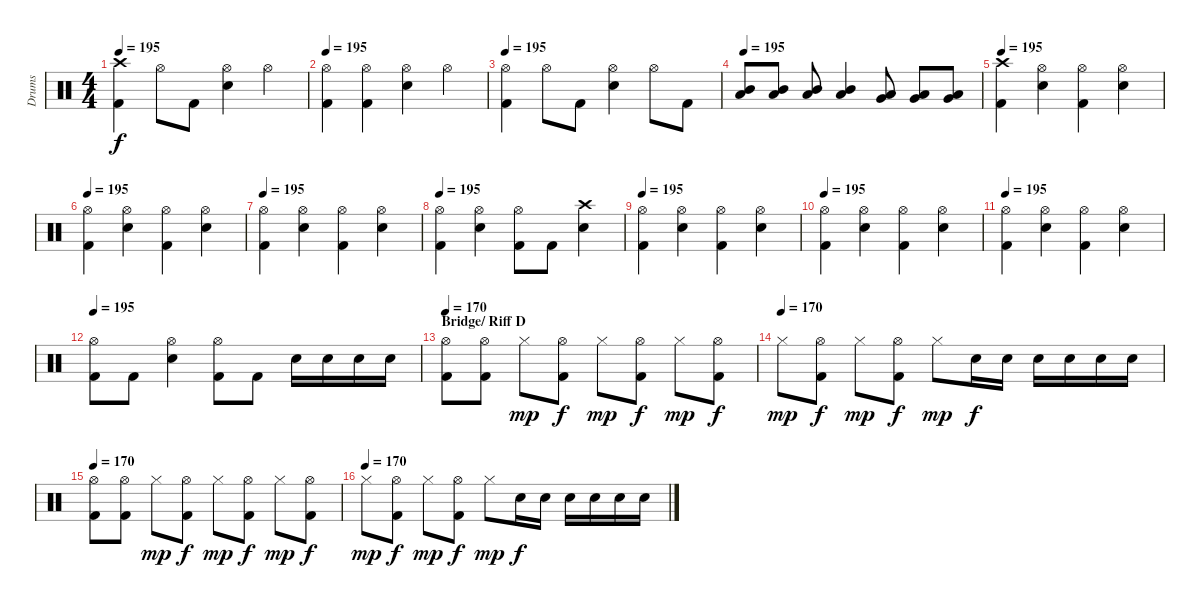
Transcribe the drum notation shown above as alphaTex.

\track ("Drums" "Drums") {instrument percussion}
\staff {score}
\articulation defaults
\ts (4 4)
\tempo 195
\clef neutral
\ks c
("Crash high (hit)" "Kick (hit) 2").4{dy f} "Hi-Hat (open)".8 "Kick (hit) 2".8 ("Hi-Hat (open)" "Electric Snare (hit)").4 "Hi-Hat (open)".4 |
\tempo 195
("Hi-Hat (open)" "Kick (hit) 2").4 ("Hi-Hat (open)" "Kick (hit) 2").4 ("Hi-Hat (open)" "Electric Snare (hit)").4 "Hi-Hat (open)".4 |
\tempo 195
("Hi-Hat (open)" "Kick (hit) 2").4 "Hi-Hat (open)".8 "Kick (hit) 2".8 ("Hi-Hat (open)" "Electric Snare (hit)").4 "Hi-Hat (open)".8 "Kick (hit) 2".8 |
\tempo 195
("Mid Tom (hit)" "Low Tom (hit)").8 ("Mid Tom (hit)" "Low Tom (hit)").8 ("Mid Tom (hit)" "Low Tom (hit)").8 ("Mid Tom (hit)" "Low Tom (hit)").4 ("Low Tom (hit)" "Very Low Tom (hit)").8 ("Low Tom (hit)" "Very Low Tom (hit)").8 ("Low Tom (hit)" "Very Low Tom (hit)").8 |
\tempo 195
("Crash high (hit)" "Kick (hit) 2").4 ("Hi-Hat (open)" "Electric Snare (hit)").4 ("Hi-Hat (open)" "Kick (hit) 2").4 ("Hi-Hat (open)" "Electric Snare (hit)").4 |
\tempo 195
("Hi-Hat (open)" "Kick (hit) 2").4 ("Hi-Hat (open)" "Electric Snare (hit)").4 ("Hi-Hat (open)" "Kick (hit) 2").4 ("Hi-Hat (open)" "Electric Snare (hit)").4 |
\tempo 195
("Hi-Hat (open)" "Kick (hit) 2").4 ("Hi-Hat (open)" "Electric Snare (hit)").4 ("Hi-Hat (open)" "Kick (hit) 2").4 ("Hi-Hat (open)" "Electric Snare (hit)").4 |
\tempo 195
("Hi-Hat (open)" "Kick (hit) 2").4 ("Hi-Hat (open)" "Electric Snare (hit)").4 ("Hi-Hat (open)" "Kick (hit) 2").8 "Kick (hit) 2".8 ("Crash high (hit)" "Electric Snare (hit)").4 |
\tempo 195
("Hi-Hat (open)" "Kick (hit) 2").4 ("Hi-Hat (open)" "Electric Snare (hit)").4 ("Hi-Hat (open)" "Kick (hit) 2").4 ("Hi-Hat (open)" "Electric Snare (hit)").4 |
\tempo 195
("Hi-Hat (open)" "Kick (hit) 2").4 ("Hi-Hat (open)" "Electric Snare (hit)").4 ("Hi-Hat (open)" "Kick (hit) 2").4 ("Hi-Hat (open)" "Electric Snare (hit)").4 |
\tempo 195
("Hi-Hat (open)" "Kick (hit) 2").4 ("Hi-Hat (open)" "Electric Snare (hit)").4 ("Hi-Hat (open)" "Kick (hit) 2").4 ("Hi-Hat (open)" "Electric Snare (hit)").4 |
\tempo 195
("Hi-Hat (open)" "Kick (hit) 2").8 "Kick (hit) 2".8 ("Hi-Hat (open)" "Electric Snare (hit)").4 ("Hi-Hat (open)" "Kick (hit) 2").8 "Kick (hit) 2".8 "Electric Snare (hit)".16 "Electric Snare (hit)".16 "Electric Snare (hit)".16 "Electric Snare (hit)".16 |
\section ("" "Bridge/ Riff D")
\tempo 170
("Hi-Hat (open)" "Kick (hit) 2").8 ("Hi-Hat (open)" "Kick (hit) 2").8 "Hi-Hat (closed)".8{dy mp} ("Hi-Hat (open)" "Kick (hit) 2").8{dy f} "Hi-Hat (closed)".8{dy mp} ("Hi-Hat (open)" "Kick (hit) 2").8{dy f} "Hi-Hat (closed)".8{dy mp} ("Hi-Hat (open)" "Kick (hit) 2").8{dy f} |
\tempo (170)
"Hi-Hat (closed)".8{dy mp} ("Hi-Hat (open)" "Kick (hit) 2").8{dy f} "Hi-Hat (closed)".8{dy mp} ("Hi-Hat (open)" "Kick (hit) 2").8{dy f} "Hi-Hat (closed)".8{dy mp} "Electric Snare (hit)".16{dy f} "Electric Snare (hit)".16 "Electric Snare (hit)".16 "Electric Snare (hit)".16 "Electric Snare (hit)".16 "Electric Snare (hit)".16 |
\tempo 170
("Hi-Hat (open)" "Kick (hit) 2").8 ("Hi-Hat (open)" "Kick (hit) 2").8 "Hi-Hat (closed)".8{dy mp} ("Hi-Hat (open)" "Kick (hit) 2").8{dy f} "Hi-Hat (closed)".8{dy mp} ("Hi-Hat (open)" "Kick (hit) 2").8{dy f} "Hi-Hat (closed)".8{dy mp} ("Hi-Hat (open)" "Kick (hit) 2").8{dy f} |
\tempo (170)
"Hi-Hat (closed)".8{dy mp} ("Hi-Hat (open)" "Kick (hit) 2").8{dy f} "Hi-Hat (closed)".8{dy mp} ("Hi-Hat (open)" "Kick (hit) 2").8{dy f} "Hi-Hat (closed)".8{dy mp} "Electric Snare (hit)".16{dy f} "Electric Snare (hit)".16 "Electric Snare (hit)".16 "Electric Snare (hit)".16 "Electric Snare (hit)".16 "Electric Snare (hit)".16
